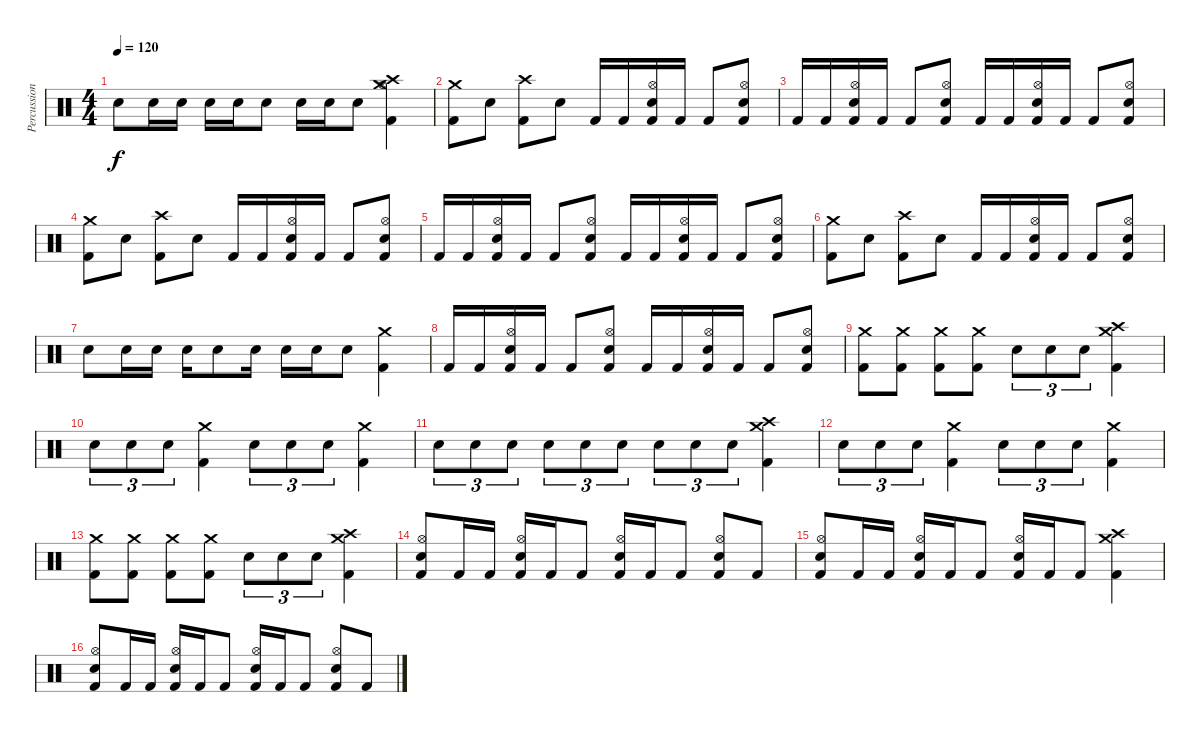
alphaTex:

\track ("Percussion" "Percussion") {instrument percussion}
\staff {score}
\articulation defaults
\ts (4 4)
\tempo 120
\clef neutral
\ks c "Snare (hit) 2".8{dy f} "Snare (hit) 2".16 "Snare (hit) 2".16 "Snare (hit) 2".16 "Snare (hit) 2".16 "Snare (hit) 2".8 "Snare (hit) 2".16 "Snare (hit) 2".16 "Snare (hit) 2".8
("Hi-Hat (open)" "Kick (hit) 2" "Crash medium (hit)" "Crash high (hit)").4 |
("Kick (hit) 2" "Crash medium (hit)").8 "Snare (hit) 2".8 ("Kick (hit) 2" "Crash high (hit)").8 "Snare (hit) 2".8 "Kick (hit) 2".16 "Kick (hit) 2".16 ("Snare (hit) 2" "Hi-Hat (open)" "Kick (hit) 2").16 "Kick (hit) 2".16 "Kick (hit) 2".8 ("Snare (hit) 2" "Hi-Hat (open)" "Kick (hit) 2").8 |
"Kick (hit) 2".16 "Kick (hit) 2".16 ("Hi-Hat (open)" "Snare (hit) 2" "Kick (hit) 2").16 "Kick (hit) 2".16 "Kick (hit) 2".8 ("Hi-Hat (open)" "Snare (hit) 2" "Kick (hit) 2").8 "Kick (hit) 2".16 "Kick (hit) 2".16 ("Hi-Hat (open)" "Snare (hit) 2" "Kick (hit) 2").16 "Kick (hit) 2".16 "Kick (hit) 2".8 ("Hi-Hat (open)" "Snare (hit) 2" "Kick (hit) 2").8 |
("Kick (hit) 2" "Crash medium (hit)").8 "Snare (hit) 2".8 ("Kick (hit) 2" "Crash high (hit)").8 "Snare (hit) 2".8 "Kick (hit) 2".16 "Kick (hit) 2".16 ("Snare (hit) 2" "Hi-Hat (open)" "Kick (hit) 2").16 "Kick (hit) 2".16 "Kick (hit) 2".8 ("Snare (hit) 2" "Hi-Hat (open)" "Kick (hit) 2").8 |
"Kick (hit) 2".16 "Kick (hit) 2".16 ("Hi-Hat (open)" "Snare (hit) 2" "Kick (hit) 2").16 "Kick (hit) 2".16 "Kick (hit) 2".8 ("Hi-Hat (open)" "Snare (hit) 2" "Kick (hit) 2").8 "Kick (hit) 2".16 "Kick (hit) 2".16 ("Hi-Hat (open)" "Snare (hit) 2" "Kick (hit) 2").16 "Kick (hit) 2".16 "Kick (hit) 2".8 ("Hi-Hat (open)" "Snare (hit) 2" "Kick (hit) 2").8 |
("Kick (hit) 2" "Crash medium (hit)").8 "Snare (hit) 2".8 ("Kick (hit) 2" "Crash high (hit)").8 "Snare (hit) 2".8 "Kick (hit) 2".16 "Kick (hit) 2".16 ("Snare (hit) 2" "Hi-Hat (open)" "Kick (hit) 2").16 "Kick (hit) 2".16 "Kick (hit) 2".8 ("Snare (hit) 2" "Hi-Hat (open)" "Kick (hit) 2").8 |
"Snare (hit) 2".8 "Snare (hit) 2".16 "Snare (hit) 2".16 "Snare (hit) 2".16 "Snare (hit) 2".8 "Snare (hit) 2".16 "Snare (hit) 2".16 "Snare (hit) 2".16 "Snare (hit) 2".8 ("Kick (hit) 2" "Crash medium (hit)").4 |
"Kick (hit) 2".16 "Kick (hit) 2".16 ("Hi-Hat (open)" "Snare (hit) 2" "Kick (hit) 2").16 "Kick (hit) 2".16 "Kick (hit) 2".8 ("Hi-Hat (open)" "Snare (hit) 2" "Kick (hit) 2").8 "Kick (hit) 2".16 "Kick (hit) 2".16 ("Hi-Hat (open)" "Snare (hit) 2" "Kick (hit) 2").16 "Kick (hit) 2".16 "Kick (hit) 2".8 ("Hi-Hat (open)" "Snare (hit) 2" "Kick (hit) 2").8 |
("Kick (hit) 2" "Crash medium (hit)").8 ("Kick (hit) 2" "Crash medium (hit)").8 ("Kick (hit) 2" "Crash medium (hit)").8 ("Kick (hit) 2" "Crash medium (hit)").8 "Snare (hit) 2".8{tu (3 2)} "Snare (hit) 2".8{tu (3 2)} "Snare (hit) 2".8{tu (3 2)} ("Kick (hit) 2" "Crash high (hit)" "Crash medium (hit)").4 |
"Snare (hit) 2".8{tu (3 2)} "Snare (hit) 2".8{tu (3 2)} "Snare (hit) 2".8{tu (3 2)} ("Kick (hit) 2" "Crash medium (hit)").4 "Snare (hit) 2".8{tu (3 2)} "Snare (hit) 2".8{tu (3 2)} "Snare (hit) 2".8{tu (3 2)} ("Kick (hit) 2" "Crash medium (hit)").4 |
"Snare (hit) 2".8{tu (3 2)} "Snare (hit) 2".8{tu (3 2)} "Snare (hit) 2".8{tu (3 2)} "Snare (hit) 2".8{tu (3 2)} "Snare (hit) 2".8{tu (3 2)} "Snare (hit) 2".8{tu (3 2)} "Snare (hit) 2".8{tu (3 2)} "Snare (hit) 2".8{tu (3 2)} "Snare (hit) 2".8{tu (3 2)} ("Kick (hit) 2" "Crash high (hit)" "Crash medium (hit)").4 |
"Snare (hit) 2".8{tu (3 2)} "Snare (hit) 2".8{tu (3 2)} "Snare (hit) 2".8{tu (3 2)} ("Kick (hit) 2" "Crash medium (hit)").4 "Snare (hit) 2".8{tu (3 2)} "Snare (hit) 2".8{tu (3 2)} "Snare (hit) 2".8{tu (3 2)} ("Kick (hit) 2" "Crash medium (hit)").4 |
("Kick (hit) 2" "Crash medium (hit)").8 ("Kick (hit) 2" "Crash medium (hit)").8 ("Kick (hit) 2" "Crash medium (hit)").8 ("Kick (hit) 2" "Crash medium (hit)").8 "Snare (hit) 2".8{tu (3 2)} "Snare (hit) 2".8{tu (3 2)} "Snare (hit) 2".8{tu (3 2)} ("Kick (hit) 2" "Crash high (hit)" "Crash medium (hit)").4 |
("Kick (hit) 2" "Snare (hit) 2" "Hi-Hat (open)").8 "Kick (hit) 2".16 "Kick (hit) 2".16 ("Kick (hit) 2" "Snare (hit) 2" "Hi-Hat (open)").16 "Kick (hit) 2".16 "Kick (hit) 2".8 ("Kick (hit) 2" "Snare (hit) 2" "Hi-Hat (open)").16 "Kick (hit) 2".16 "Kick (hit) 2".8 ("Kick (hit) 2" "Snare (hit) 2" "Hi-Hat (open)").8 "Kick (hit) 2".8 |
("Kick (hit) 2" "Snare (hit) 2" "Hi-Hat (open)").8 "Kick (hit) 2".16 "Kick (hit) 2".16 ("Kick (hit) 2" "Snare (hit) 2" "Hi-Hat (open)").16 "Kick (hit) 2".16 "Kick (hit) 2".8 ("Kick (hit) 2" "Snare (hit) 2" "Hi-Hat (open)").16 "Kick (hit) 2".16 "Kick (hit) 2".8 ("Kick (hit) 2" "Crash high (hit)" "Crash medium (hit)").4 |
("Kick (hit) 2" "Snare (hit) 2" "Hi-Hat (open)").8 "Kick (hit) 2".16 "Kick (hit) 2".16 ("Kick (hit) 2" "Snare (hit) 2" "Hi-Hat (open)").16 "Kick (hit) 2".16 "Kick (hit) 2".8 ("Kick (hit) 2" "Snare (hit) 2" "Hi-Hat (open)").16 "Kick (hit) 2".16 "Kick (hit) 2".8 ("Kick (hit) 2" "Snare (hit) 2" "Hi-Hat (open)").8 "Kick (hit) 2".8
